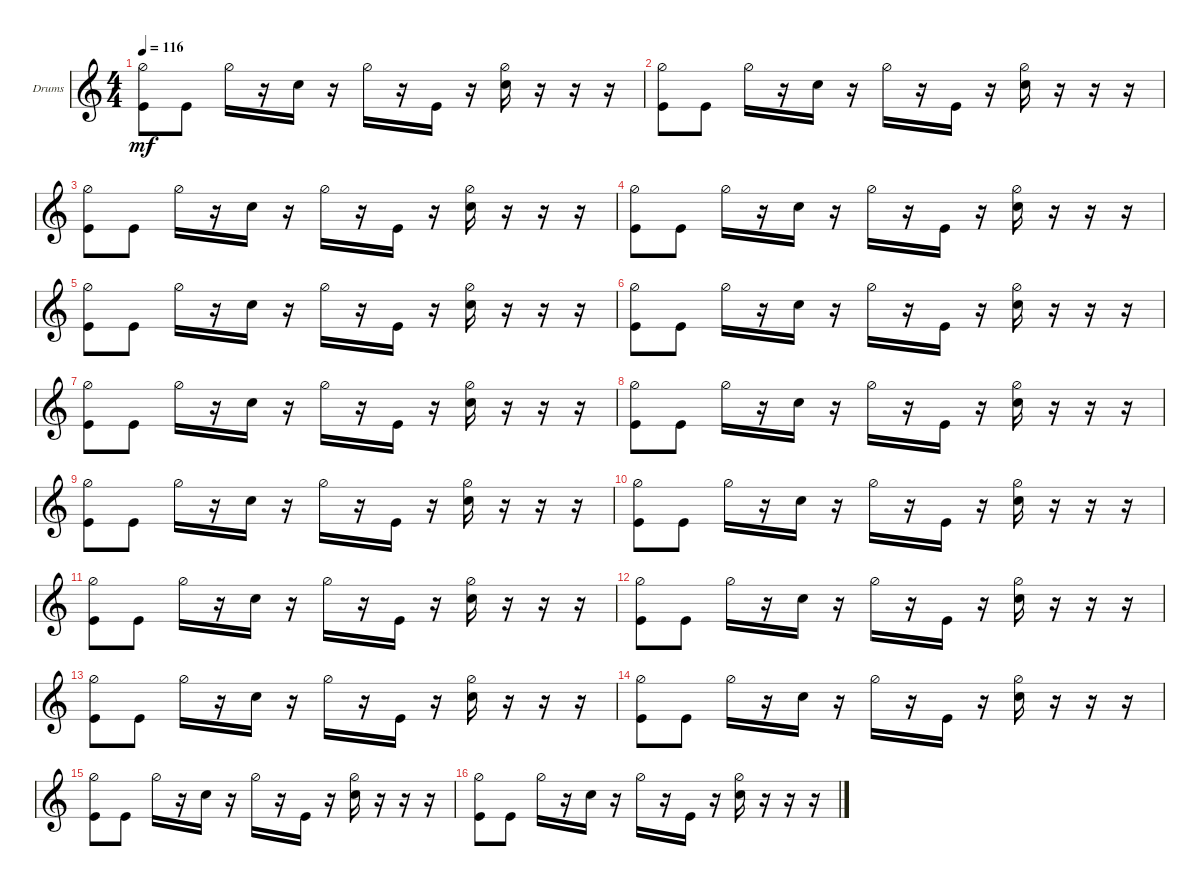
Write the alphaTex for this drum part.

\defaultSystemsLayout 4
\bracketExtendMode groupsimilarinstruments
\firstSystemTrackNameOrientation horizontal
\otherSystemsTrackNameOrientation horizontal
\track ("Drumkit" "Drums") {instrument percussion}
\staff {score}
\articulation defaults
\ts (4 4)
\tempo 116
\clef g2
\ks c
("Kick (hit)" "Hi-Hat (half)").8{dy mf} "Kick (hit)".8 "Hi-Hat (half)".16 r.16 "Snare (hit) 2".16 r.16 "Hi-Hat (half)".16 r.16 "Kick (hit)".16 r.16 ("Snare (hit) 2" "Hi-Hat (half)").16 r.16 r.16 r.16 |
("Kick (hit)" "Hi-Hat (half)").8 "Kick (hit)".8 "Hi-Hat (half)".16 r.16 "Snare (hit) 2".16 r.16 "Hi-Hat (half)".16 r.16 "Kick (hit)".16 r.16 ("Snare (hit) 2" "Hi-Hat (half)").16 r.16 r.16 r.16 |
("Kick (hit)" "Hi-Hat (half)").8 "Kick (hit)".8 "Hi-Hat (half)".16 r.16 "Snare (hit) 2".16 r.16 "Hi-Hat (half)".16 r.16 "Kick (hit)".16 r.16 ("Snare (hit) 2" "Hi-Hat (half)").16 r.16 r.16 r.16 |
("Kick (hit)" "Hi-Hat (half)").8 "Kick (hit)".8 "Hi-Hat (half)".16 r.16 "Snare (hit) 2".16 r.16 "Hi-Hat (half)".16 r.16 "Kick (hit)".16 r.16 ("Snare (hit) 2" "Hi-Hat (half)").16 r.16 r.16 r.16 |
("Kick (hit)" "Hi-Hat (half)").8 "Kick (hit)".8 "Hi-Hat (half)".16 r.16 "Snare (hit) 2".16 r.16 "Hi-Hat (half)".16 r.16 "Kick (hit)".16 r.16 ("Snare (hit) 2" "Hi-Hat (half)").16 r.16 r.16 r.16 |
("Kick (hit)" "Hi-Hat (half)").8 "Kick (hit)".8 "Hi-Hat (half)".16 r.16 "Snare (hit) 2".16 r.16 "Hi-Hat (half)".16 r.16 "Kick (hit)".16 r.16 ("Snare (hit) 2" "Hi-Hat (half)").16 r.16 r.16 r.16 |
("Kick (hit)" "Hi-Hat (half)").8 "Kick (hit)".8 "Hi-Hat (half)".16 r.16 "Snare (hit) 2".16 r.16 "Hi-Hat (half)".16 r.16 "Kick (hit)".16 r.16 ("Snare (hit) 2" "Hi-Hat (half)").16 r.16 r.16 r.16 |
("Kick (hit)" "Hi-Hat (half)").8 "Kick (hit)".8 "Hi-Hat (half)".16 r.16 "Snare (hit) 2".16 r.16 "Hi-Hat (half)".16 r.16 "Kick (hit)".16 r.16 ("Snare (hit) 2" "Hi-Hat (half)").16 r.16 r.16 r.16 |
("Kick (hit)" "Hi-Hat (half)").8 "Kick (hit)".8 "Hi-Hat (half)".16 r.16 "Snare (hit) 2".16 r.16 "Hi-Hat (half)".16 r.16 "Kick (hit)".16 r.16 ("Snare (hit) 2" "Hi-Hat (half)").16 r.16 r.16 r.16 |
("Kick (hit)" "Hi-Hat (half)").8 "Kick (hit)".8 "Hi-Hat (half)".16 r.16 "Snare (hit) 2".16 r.16 "Hi-Hat (half)".16 r.16 "Kick (hit)".16 r.16 ("Snare (hit) 2" "Hi-Hat (half)").16 r.16 r.16 r.16 |
("Kick (hit)" "Hi-Hat (half)").8 "Kick (hit)".8 "Hi-Hat (half)".16 r.16 "Snare (hit) 2".16 r.16 "Hi-Hat (half)".16 r.16 "Kick (hit)".16 r.16 ("Snare (hit) 2" "Hi-Hat (half)").16 r.16 r.16 r.16 |
("Kick (hit)" "Hi-Hat (half)").8 "Kick (hit)".8 "Hi-Hat (half)".16 r.16 "Snare (hit) 2".16 r.16 "Hi-Hat (half)".16 r.16 "Kick (hit)".16 r.16 ("Snare (hit) 2" "Hi-Hat (half)").16 r.16 r.16 r.16 |
("Kick (hit)" "Hi-Hat (half)").8 "Kick (hit)".8 "Hi-Hat (half)".16 r.16 "Snare (hit) 2".16 r.16 "Hi-Hat (half)".16 r.16 "Kick (hit)".16 r.16 ("Snare (hit) 2" "Hi-Hat (half)").16 r.16 r.16 r.16 |
("Kick (hit)" "Hi-Hat (half)").8 "Kick (hit)".8 "Hi-Hat (half)".16 r.16 "Snare (hit) 2".16 r.16 "Hi-Hat (half)".16 r.16 "Kick (hit)".16 r.16 ("Snare (hit) 2" "Hi-Hat (half)").16 r.16 r.16 r.16 |
("Kick (hit)" "Hi-Hat (half)").8 "Kick (hit)".8 "Hi-Hat (half)".16 r.16 "Snare (hit) 2".16 r.16 "Hi-Hat (half)".16 r.16 "Kick (hit)".16 r.16 ("Snare (hit) 2" "Hi-Hat (half)").16 r.16 r.16 r.16 |
("Kick (hit)" "Hi-Hat (half)").8 "Kick (hit)".8 "Hi-Hat (half)".16 r.16 "Snare (hit) 2".16 r.16 "Hi-Hat (half)".16 r.16 "Kick (hit)".16 r.16 ("Snare (hit) 2" "Hi-Hat (half)").16 r.16 r.16 r.16
